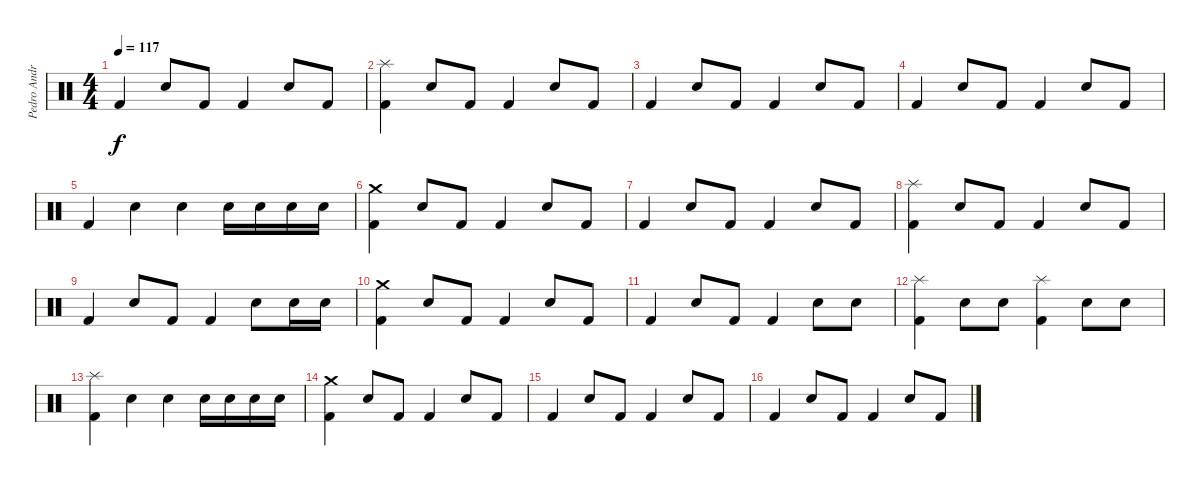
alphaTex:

\track ("Pedro Andreu - Batería" "Pedro Andr") {instrument percussion}
\staff {score}
\articulation defaults
\ts (4 4)
\tempo 117
\clef neutral
\ks c "Kick (hit) 2".4{dy f} "Snare (hit) 2".8 "Kick (hit) 2".8 "Kick (hit) 2".4 "Snare (hit) 2".8 "Kick (hit) 2".8
|
("Splash (hit)" "Kick (hit) 2").4 "Snare (hit) 2".8 "Kick (hit) 2".8 "Kick (hit) 2".4 "Snare (hit) 2".8 "Kick (hit) 2".8 |
"Kick (hit) 2".4 "Snare (hit) 2".8 "Kick (hit) 2".8 "Kick (hit) 2".4 "Snare (hit) 2".8 "Kick (hit) 2".8 |
"Kick (hit) 2".4 "Snare (hit) 2".8 "Kick (hit) 2".8 "Kick (hit) 2".4 "Snare (hit) 2".8 "Kick (hit) 2".8 |
"Kick (hit) 2".4 "Snare (hit) 2".4 "Snare (hit) 2".4 "Snare (hit) 2".16 "Snare (hit) 2".16 "Snare (hit) 2".16 "Snare (hit) 2".16 |
("Crash medium (hit)" "Kick (hit) 2").4 "Snare (hit) 2".8 "Kick (hit) 2".8 "Kick (hit) 2".4 "Snare (hit) 2".8 "Kick (hit) 2".8 |
"Kick (hit) 2".4 "Snare (hit) 2".8 "Kick (hit) 2".8 "Kick (hit) 2".4 "Snare (hit) 2".8 "Kick (hit) 2".8 |
("Splash (hit)" "Kick (hit) 2").4 "Snare (hit) 2".8 "Kick (hit) 2".8 "Kick (hit) 2".4 "Snare (hit) 2".8 "Kick (hit) 2".8 |
"Kick (hit) 2".4 "Snare (hit) 2".8 "Kick (hit) 2".8 "Kick (hit) 2".4 "Snare (hit) 2".8 "Snare (hit) 2".16 "Snare (hit) 2".16 |
("Crash medium (hit)" "Kick (hit) 2").4 "Snare (hit) 2".8 "Kick (hit) 2".8 "Kick (hit) 2".4 "Snare (hit) 2".8 "Kick (hit) 2".8 |
"Kick (hit) 2".4 "Snare (hit) 2".8 "Kick (hit) 2".8 "Kick (hit) 2".4 "Snare (hit) 2".8 "Snare (hit) 2".8 |
("Splash (hit)" "Kick (hit) 2").4 "Snare (hit) 2".8 "Snare (hit) 2".8 ("Splash (hit)" "Kick (hit) 2").4 "Snare (hit) 2".8 "Snare (hit) 2".8 |
("Splash (hit)" "Kick (hit) 2").4 "Snare (hit) 2".4 "Snare (hit) 2".4 "Snare (hit) 2".16 "Snare (hit) 2".16 "Snare (hit) 2".16 "Snare (hit) 2".16 |
("Crash medium (hit)" "Kick (hit) 2").4 "Snare (hit) 2".8 "Kick (hit) 2".8 "Kick (hit) 2".4 "Snare (hit) 2".8 "Kick (hit) 2".8 |
"Kick (hit) 2".4 "Snare (hit) 2".8 "Kick (hit) 2".8 "Kick (hit) 2".4 "Snare (hit) 2".8 "Kick (hit) 2".8 |
"Kick (hit) 2".4 "Snare (hit) 2".8 "Kick (hit) 2".8 "Kick (hit) 2".4 "Snare (hit) 2".8 "Kick (hit) 2".8
